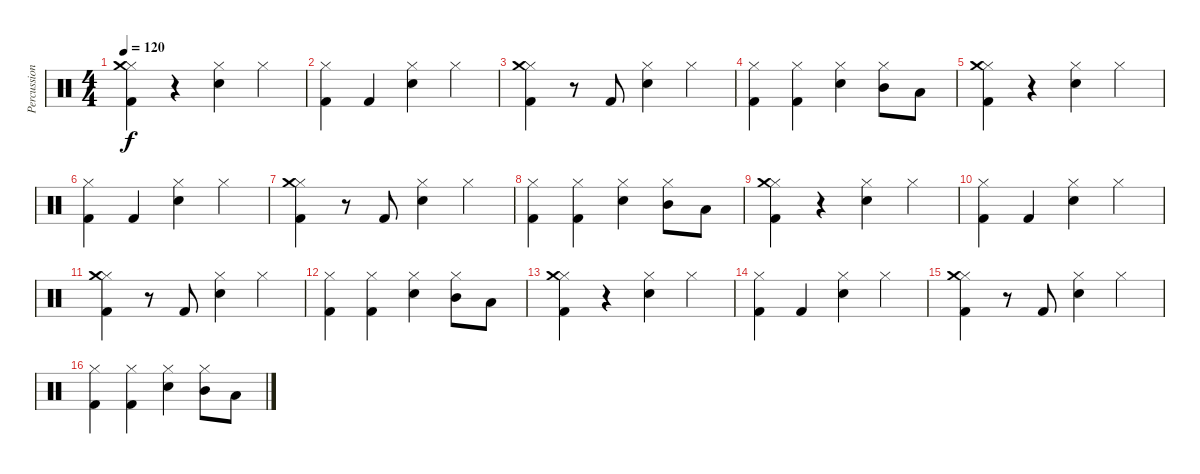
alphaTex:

\track ("Percussions" "Percussion") {instrument percussion}
\staff {score}
\articulation defaults
\ts (4 4)
\tempo 120
\clef neutral
\ks c
("Hi-Hat (closed)" "Crash medium (hit)" "Kick (hit) 2").4{dy f} r.4 ("Hi-Hat (closed)" "Electric Snare (hit)").4 "Hi-Hat (closed)".4 |
("Hi-Hat (closed)" "Kick (hit) 2").4 "Kick (hit) 2".4 ("Hi-Hat (closed)" "Electric Snare (hit)").4 "Hi-Hat (closed)".4 |
("Hi-Hat (closed)" "Crash medium (hit)" "Kick (hit) 2").4 r.8 "Kick (hit) 2".8 ("Hi-Hat (closed)" "Electric Snare (hit)").4 "Hi-Hat (closed)".4 |
("Hi-Hat (closed)" "Kick (hit) 2").4 ("Hi-Hat (closed)" "Kick (hit) 2").4 ("Hi-Hat (closed)" "Electric Snare (hit)").4 ("Hi-Hat (closed)" "Mid Tom (hit)").8 "Low Tom (hit)".8 |
("Hi-Hat (closed)" "Crash medium (hit)" "Kick (hit) 2").4 r.4 ("Hi-Hat (closed)" "Electric Snare (hit)").4 "Hi-Hat (closed)".4 |
("Hi-Hat (closed)" "Kick (hit) 2").4 "Kick (hit) 2".4 ("Hi-Hat (closed)" "Electric Snare (hit)").4 "Hi-Hat (closed)".4 |
("Hi-Hat (closed)" "Crash medium (hit)" "Kick (hit) 2").4 r.8 "Kick (hit) 2".8 ("Hi-Hat (closed)" "Electric Snare (hit)").4 "Hi-Hat (closed)".4 |
("Hi-Hat (closed)" "Kick (hit) 2").4 ("Hi-Hat (closed)" "Kick (hit) 2").4 ("Hi-Hat (closed)" "Electric Snare (hit)").4 ("Hi-Hat (closed)" "Mid Tom (hit)").8 "Low Tom (hit)".8 |
("Hi-Hat (closed)" "Crash medium (hit)" "Kick (hit) 2").4 r.4 ("Hi-Hat (closed)" "Electric Snare (hit)").4 "Hi-Hat (closed)".4 |
("Hi-Hat (closed)" "Kick (hit) 2").4 "Kick (hit) 2".4 ("Hi-Hat (closed)" "Electric Snare (hit)").4 "Hi-Hat (closed)".4 |
("Hi-Hat (closed)" "Crash medium (hit)" "Kick (hit) 2").4 r.8 "Kick (hit) 2".8 ("Hi-Hat (closed)" "Electric Snare (hit)").4 "Hi-Hat (closed)".4 |
("Hi-Hat (closed)" "Kick (hit) 2").4 ("Hi-Hat (closed)" "Kick (hit) 2").4 ("Hi-Hat (closed)" "Electric Snare (hit)").4 ("Hi-Hat (closed)" "Mid Tom (hit)").8 "Low Tom (hit)".8 |
("Hi-Hat (closed)" "Crash medium (hit)" "Kick (hit) 2").4 r.4 ("Hi-Hat (closed)" "Electric Snare (hit)").4 "Hi-Hat (closed)".4 |
("Hi-Hat (closed)" "Kick (hit) 2").4 "Kick (hit) 2".4 ("Hi-Hat (closed)" "Electric Snare (hit)").4 "Hi-Hat (closed)".4 |
("Hi-Hat (closed)" "Crash medium (hit)" "Kick (hit) 2").4 r.8 "Kick (hit) 2".8 ("Hi-Hat (closed)" "Electric Snare (hit)").4 "Hi-Hat (closed)".4 |
("Hi-Hat (closed)" "Kick (hit) 2").4 ("Hi-Hat (closed)" "Kick (hit) 2").4 ("Hi-Hat (closed)" "Electric Snare (hit)").4 ("Hi-Hat (closed)" "Mid Tom (hit)").8 "Low Tom (hit)".8
